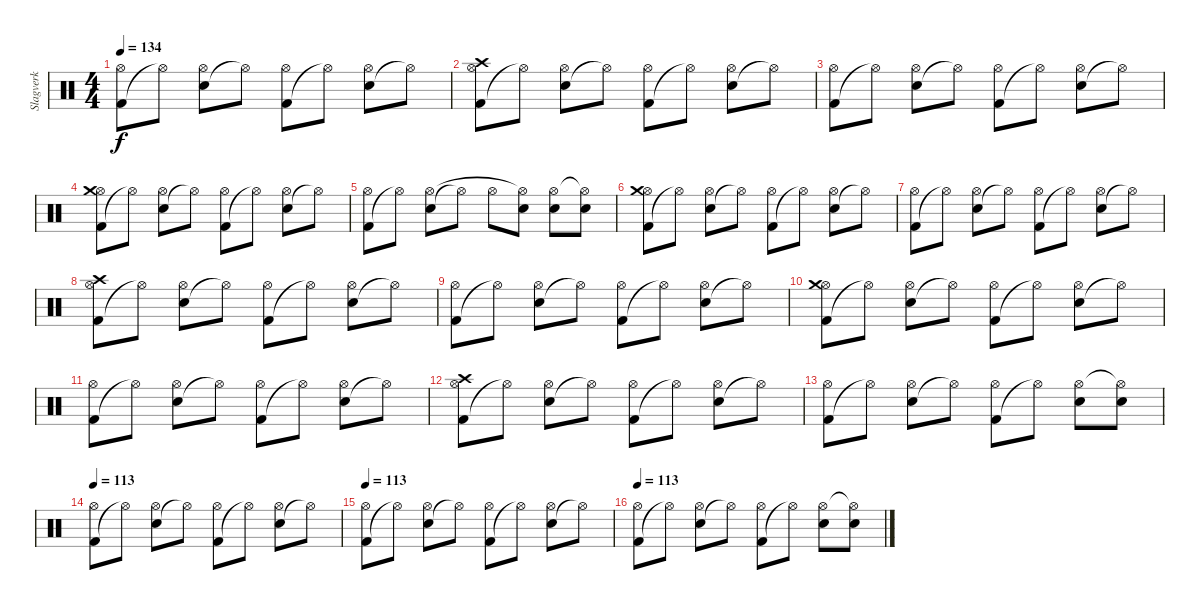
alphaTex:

\track ("Slagverk" "Slagverk") {instrument percussion}
\staff {score}
\articulation defaults
\ts (4 4)
\tempo 134
\clef neutral
\ks c
("Kick (hit) 2" "Hi-Hat (open)").8{dy f} "Hi-Hat (open)"{t}.8 ("Electric Snare (hit)" "Hi-Hat (open)").8 "Hi-Hat (open)"{t}.8 ("Kick (hit) 2" "Hi-Hat (open)").8 "Hi-Hat (open)"{t}.8 ("Electric Snare (hit)" "Hi-Hat (open)").8 "Hi-Hat (open)"{t}.8 |
("Kick (hit) 2" "Hi-Hat (open)" "Crash high (hit)").8 "Hi-Hat (open)"{t}.8 ("Electric Snare (hit)" "Hi-Hat (open)").8 "Hi-Hat (open)"{t}.8 ("Kick (hit) 2" "Hi-Hat (open)").8 "Hi-Hat (open)"{t}.8 ("Electric Snare (hit)" "Hi-Hat (open)").8 "Hi-Hat (open)"{t}.8 |
("Kick (hit) 2" "Hi-Hat (open)").8 "Hi-Hat (open)"{t}.8 ("Electric Snare (hit)" "Hi-Hat (open)").8 "Hi-Hat (open)"{t}.8 ("Kick (hit) 2" "Hi-Hat (open)").8 "Hi-Hat (open)"{t}.8 ("Electric Snare (hit)" "Hi-Hat (open)").8 "Hi-Hat (open)"{t}.8 |
("Kick (hit) 2" "Hi-Hat (open)" "Crash medium (hit)").8 "Hi-Hat (open)"{t}.8 ("Electric Snare (hit)" "Hi-Hat (open)").8 "Hi-Hat (open)"{t}.8 ("Kick (hit) 2" "Hi-Hat (open)").8 "Hi-Hat (open)"{t}.8 ("Electric Snare (hit)" "Hi-Hat (open)").8 "Hi-Hat (open)"{t}.8 |
("Kick (hit) 2" "Hi-Hat (open)").8 "Hi-Hat (open)"{t}.8 ("Electric Snare (hit)" "Hi-Hat (open)").8 "Hi-Hat (open)"{t}.8 "Hi-Hat (open)".8 ("Electric Snare (hit)" "Hi-Hat (open)"{t}).8 ("Electric Snare (hit)" "Hi-Hat (open)").8 ("Electric Snare (hit)" "Hi-Hat (open)"{t}).8 |
("Kick (hit) 2" "Hi-Hat (open)" "Crash medium (hit)").8 "Hi-Hat (open)"{t}.8 ("Electric Snare (hit)" "Hi-Hat (open)").8 "Hi-Hat (open)"{t}.8 ("Kick (hit) 2" "Hi-Hat (open)").8 "Hi-Hat (open)"{t}.8 ("Electric Snare (hit)" "Hi-Hat (open)").8 "Hi-Hat (open)"{t}.8 |
("Kick (hit) 2" "Hi-Hat (open)").8 "Hi-Hat (open)"{t}.8 ("Electric Snare (hit)" "Hi-Hat (open)").8 "Hi-Hat (open)"{t}.8 ("Kick (hit) 2" "Hi-Hat (open)").8 "Hi-Hat (open)"{t}.8 ("Electric Snare (hit)" "Hi-Hat (open)").8 "Hi-Hat (open)"{t}.8 |
("Kick (hit) 2" "Hi-Hat (open)" "Crash high (hit)").8 "Hi-Hat (open)"{t}.8 ("Electric Snare (hit)" "Hi-Hat (open)").8 "Hi-Hat (open)"{t}.8 ("Kick (hit) 2" "Hi-Hat (open)").8 "Hi-Hat (open)"{t}.8 ("Electric Snare (hit)" "Hi-Hat (open)").8 "Hi-Hat (open)"{t}.8 |
("Kick (hit) 2" "Hi-Hat (open)").8 "Hi-Hat (open)"{t}.8 ("Electric Snare (hit)" "Hi-Hat (open)").8 "Hi-Hat (open)"{t}.8 ("Kick (hit) 2" "Hi-Hat (open)").8 "Hi-Hat (open)"{t}.8 ("Electric Snare (hit)" "Hi-Hat (open)").8 "Hi-Hat (open)"{t}.8 |
("Kick (hit) 2" "Hi-Hat (open)" "Crash medium (hit)").8 "Hi-Hat (open)"{t}.8 ("Electric Snare (hit)" "Hi-Hat (open)").8 "Hi-Hat (open)"{t}.8 ("Kick (hit) 2" "Hi-Hat (open)").8 "Hi-Hat (open)"{t}.8 ("Electric Snare (hit)" "Hi-Hat (open)").8 "Hi-Hat (open)"{t}.8 |
("Kick (hit) 2" "Hi-Hat (open)").8 "Hi-Hat (open)"{t}.8 ("Electric Snare (hit)" "Hi-Hat (open)").8 "Hi-Hat (open)"{t}.8 ("Kick (hit) 2" "Hi-Hat (open)").8 "Hi-Hat (open)"{t}.8 ("Electric Snare (hit)" "Hi-Hat (open)").8 "Hi-Hat (open)"{t}.8 |
("Kick (hit) 2" "Hi-Hat (open)" "Crash high (hit)").8 "Hi-Hat (open)"{t}.8 ("Electric Snare (hit)" "Hi-Hat (open)").8 "Hi-Hat (open)"{t}.8 ("Kick (hit) 2" "Hi-Hat (open)").8 "Hi-Hat (open)"{t}.8 ("Electric Snare (hit)" "Hi-Hat (open)").8 "Hi-Hat (open)"{t}.8 |
("Kick (hit) 2" "Hi-Hat (open)").8 "Hi-Hat (open)"{t}.8 ("Electric Snare (hit)" "Hi-Hat (open)").8 "Hi-Hat (open)"{t}.8 ("Kick (hit) 2" "Hi-Hat (open)").8 "Hi-Hat (open)"{t}.8 ("Electric Snare (hit)" "Hi-Hat (open)").8 ("Electric Snare (hit)" "Hi-Hat (open)"{t}).8 |
\tempo 113
("Kick (hit) 2" "Hi-Hat (open)").8 "Hi-Hat (open)"{t}.8 ("Electric Snare (hit)" "Hi-Hat (open)").8 "Hi-Hat (open)"{t}.8 ("Kick (hit) 2" "Hi-Hat (open)").8 "Hi-Hat (open)"{t}.8 ("Electric Snare (hit)" "Hi-Hat (open)").8 "Hi-Hat (open)"{t}.8 |
\tempo 113
("Kick (hit) 2" "Hi-Hat (open)").8 "Hi-Hat (open)"{t}.8 ("Electric Snare (hit)" "Hi-Hat (open)").8 "Hi-Hat (open)"{t}.8 ("Kick (hit) 2" "Hi-Hat (open)").8 "Hi-Hat (open)"{t}.8 ("Electric Snare (hit)" "Hi-Hat (open)").8 "Hi-Hat (open)"{t}.8 |
\tempo 113
("Kick (hit) 2" "Hi-Hat (open)").8 "Hi-Hat (open)"{t}.8 ("Electric Snare (hit)" "Hi-Hat (open)").8 "Hi-Hat (open)"{t}.8 ("Kick (hit) 2" "Hi-Hat (open)").8 "Hi-Hat (open)"{t}.8 ("Electric Snare (hit)" "Hi-Hat (open)").8 ("Electric Snare (hit)" "Hi-Hat (open)"{t}).8
